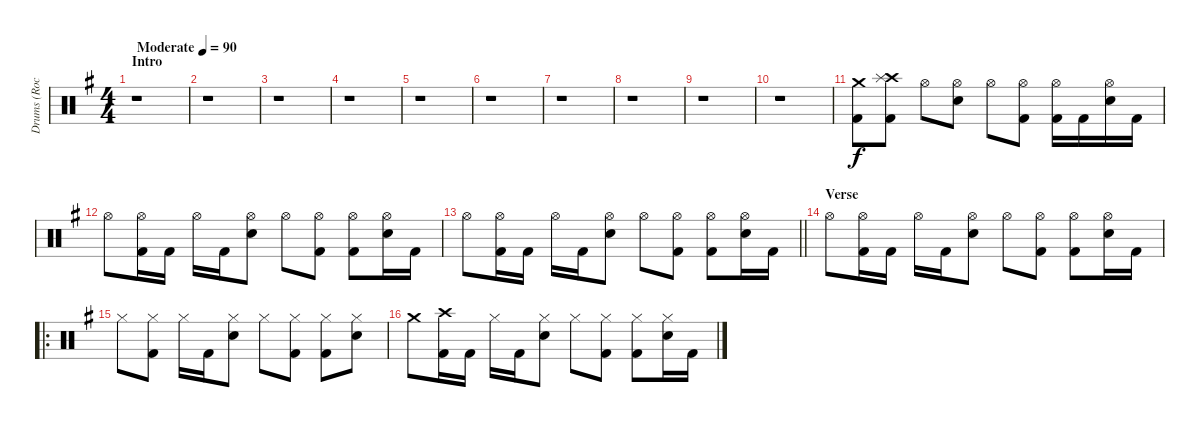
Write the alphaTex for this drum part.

\track ("Drums (Rocky Grey)" "Drums (Roc") {instrument percussion}
\staff {score}
\articulation defaults
\ts (4 4)
\section ("" "Intro")
\tempo (90 "Moderate")
\clef neutral
\ks g
r.1{dy f} |
r.1 |
r.1 |
r.1 |
r.1 |
r.1 |
r.1 |
r.1 |
r.1 |
r.1 |
("Crash medium (hit)" "Kick (hit) 2").8 ("Crash high (hit)" "Splash (hit)" "Kick (hit) 2").8 "Hi-Hat (open)".8 ("Hi-Hat (open)" "Snare (hit) 2").8 "Hi-Hat (open)".8 ("Hi-Hat (open)" "Kick (hit) 2").8 ("Hi-Hat (open)" "Kick (hit) 2").16 "Kick (hit) 2".16 ("Hi-Hat (open)" "Snare (hit) 2").16 "Kick (hit) 2".16 |
"Hi-Hat (open)".8 ("Hi-Hat (open)" "Kick (hit) 2").16 "Kick (hit) 2".16 "Hi-Hat (open)".16 "Kick (hit) 2".16 ("Hi-Hat (open)" "Snare (hit) 2").8 "Hi-Hat (open)".8 ("Hi-Hat (open)" "Kick (hit) 2").8 ("Hi-Hat (open)" "Kick (hit) 2").8 ("Hi-Hat (open)" "Snare (hit) 2").16 "Kick (hit) 2".16 |
\barLineRight lightlight "Hi-Hat (open)".8
("Hi-Hat (open)" "Kick (hit) 2").16 "Kick (hit) 2".16 "Hi-Hat (open)".16 "Kick (hit) 2".16 ("Hi-Hat (open)" "Snare (hit) 2").8 "Hi-Hat (open)".8 ("Hi-Hat (open)" "Kick (hit) 2").8 ("Hi-Hat (open)" "Kick (hit) 2").8 ("Hi-Hat (open)" "Snare (hit) 2").16 "Kick (hit) 2".16 |
\section ("" "Verse")
"Hi-Hat (open)".8 ("Hi-Hat (open)" "Kick (hit) 2").16 "Kick (hit) 2".16 "Hi-Hat (open)".16 "Kick (hit) 2".16 ("Hi-Hat (open)" "Snare (hit) 2").8 "Hi-Hat (open)".8 ("Hi-Hat (open)" "Kick (hit) 2").8 ("Hi-Hat (open)" "Kick (hit) 2").8 ("Hi-Hat (open)" "Snare (hit) 2").16 "Kick (hit) 2".16 |
\ro "Hi-Hat (closed)".8
("Hi-Hat (closed)" "Kick (hit) 2").8 "Hi-Hat (closed)".16 "Kick (hit) 2".16 ("Hi-Hat (closed)" "Snare (hit) 2").8 "Hi-Hat (closed)".8 ("Hi-Hat (closed)" "Kick (hit) 2").8 ("Hi-Hat (closed)" "Kick (hit) 2").8 ("Hi-Hat (closed)" "Snare (hit) 2").8 |
"Crash medium (hit)".8 ("Crash high (hit)" "Kick (hit) 2").16 "Kick (hit) 2".16 "Hi-Hat (closed)".16 "Kick (hit) 2".16 ("Hi-Hat (closed)" "Snare (hit) 2").8 "Hi-Hat (closed)".8 ("Hi-Hat (closed)" "Kick (hit) 2").8 ("Hi-Hat (closed)" "Kick (hit) 2").8 ("Hi-Hat (closed)" "Snare (hit) 2").16 "Kick (hit) 2".16
